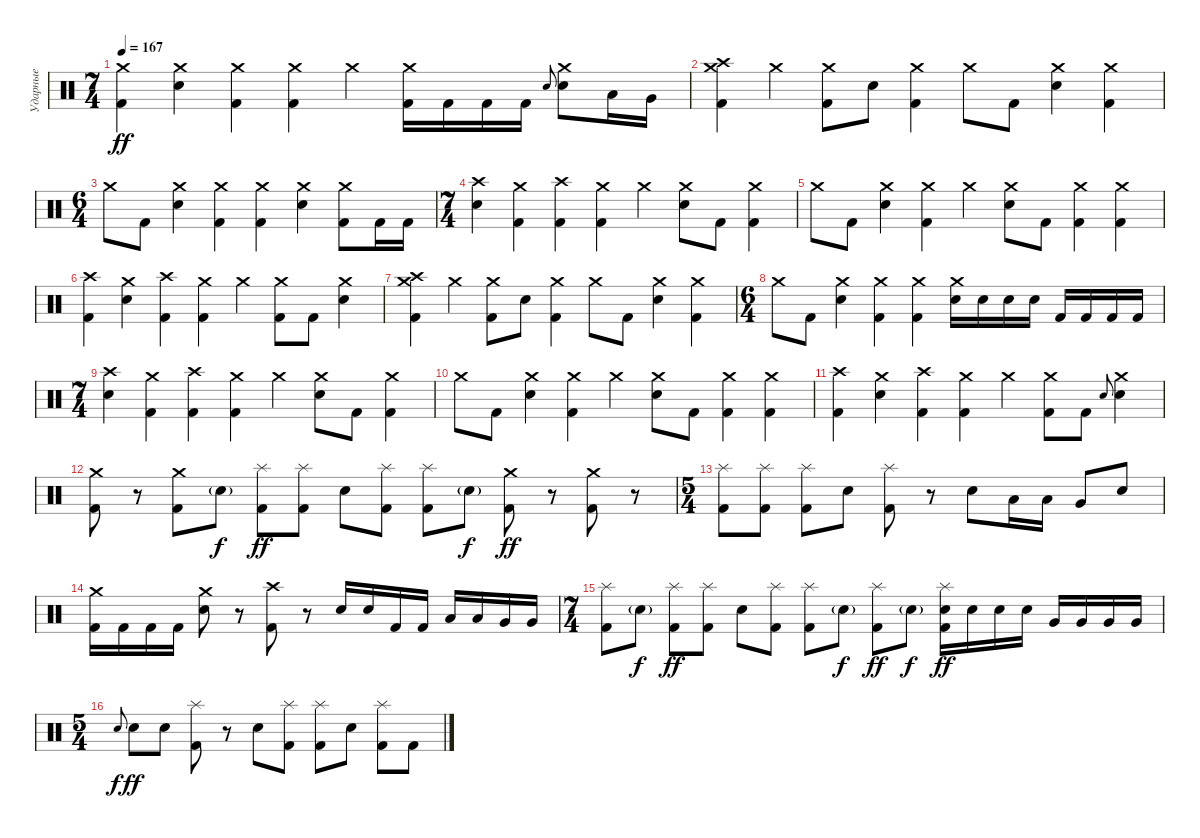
\track ("Ударные" "Ударные") {instrument percussion}
\staff {score}
\articulation defaults
\ts (7 4)
\tempo 167
\clef neutral
\ks c
("Crash medium (hit)" "Kick (hit) 2").4{dy ff} ("Crash medium (hit)" "Electric Snare (hit)").4 ("Crash medium (hit)" "Kick (hit) 2").4 ("Crash medium (hit)" "Kick (hit) 2").4 "Crash medium (hit)".4 ("Crash medium (hit)" "Kick (hit) 2").16 "Kick (hit) 2".16 "Kick (hit) 2".16 "Kick (hit) 2".16 "Electric Snare (hit)".8{gr onbeat} ("Crash medium (hit)" "Electric Snare (hit)").8 "Low Tom (hit)".16 "Very Low Tom (hit)".16 |
("Crash medium (hit)" "Crash high (hit)" "Kick (hit) 2").4 "Crash medium (hit)".4 ("Crash medium (hit)" "Kick (hit) 2").8 "Electric Snare (hit)".8 ("Crash medium (hit)" "Kick (hit) 2").4 "Crash medium (hit)".8 "Kick (hit) 2".8 ("Crash medium (hit)" "Electric Snare (hit)").4 ("Crash medium (hit)" "Kick (hit) 2").4 |
\ts (6 4)
"Crash medium (hit)".8 "Kick (hit) 2".8 ("Crash medium (hit)" "Electric Snare (hit)").4 ("Crash medium (hit)" "Kick (hit) 2").4 ("Crash medium (hit)" "Kick (hit) 2").4 ("Crash medium (hit)" "Electric Snare (hit)").4 ("Crash medium (hit)" "Kick (hit) 2").8 "Kick (hit) 2".16 "Kick (hit) 2".16 |
\ts (7 4)
("Crash high (hit)" "Electric Snare (hit)").4 ("Crash medium (hit)" "Kick (hit) 2").4 ("Crash high (hit)" "Kick (hit) 2").4 ("Crash medium (hit)" "Kick (hit) 2").4 "Crash medium (hit)".4 ("Crash medium (hit)" "Electric Snare (hit)").8 "Kick (hit) 2".8 ("Crash medium (hit)" "Kick (hit) 2").4 |
"Crash medium (hit)".8 "Kick (hit) 2".8 ("Crash medium (hit)" "Electric Snare (hit)").4 ("Crash medium (hit)" "Kick (hit) 2").4 "Crash medium (hit)".4 ("Crash medium (hit)" "Electric Snare (hit)").8 "Kick (hit) 2".8 ("Crash medium (hit)" "Kick (hit) 2").4 ("Crash medium (hit)" "Kick (hit) 2").4 |
("Crash high (hit)" "Kick (hit) 2").4 ("Crash medium (hit)" "Electric Snare (hit)").4 ("Crash high (hit)" "Kick (hit) 2").4 ("Crash medium (hit)" "Kick (hit) 2").4 "Crash medium (hit)".4 ("Crash medium (hit)" "Kick (hit) 2").8 "Kick (hit) 2".8 ("Crash medium (hit)" "Electric Snare (hit)").4 |
("Crash medium (hit)" "Crash high (hit)" "Kick (hit) 2").4 "Crash medium (hit)".4 ("Crash medium (hit)" "Kick (hit) 2").8 "Electric Snare (hit)".8 ("Crash medium (hit)" "Kick (hit) 2").4 "Crash medium (hit)".8 "Kick (hit) 2".8 ("Crash medium (hit)" "Electric Snare (hit)").4 ("Crash medium (hit)" "Kick (hit) 2").4 |
\ts (6 4)
"Crash medium (hit)".8 "Kick (hit) 2".8 ("Crash medium (hit)" "Electric Snare (hit)").4 ("Crash medium (hit)" "Kick (hit) 2").4 ("Crash medium (hit)" "Kick (hit) 2").4 ("Crash medium (hit)" "Electric Snare (hit)").16 "Electric Snare (hit)".16 "Electric Snare (hit)".16 "Electric Snare (hit)".16 "Kick (hit) 2".16 "Kick (hit) 2".16 "Kick (hit) 2".16 "Kick (hit) 2".16 |
\ts (7 4)
("Crash high (hit)" "Electric Snare (hit)").4 ("Crash medium (hit)" "Kick (hit) 2").4 ("Crash high (hit)" "Kick (hit) 2").4 ("Crash medium (hit)" "Kick (hit) 2").4 "Crash medium (hit)".4 ("Crash medium (hit)" "Electric Snare (hit)").8 "Kick (hit) 2".8 ("Crash medium (hit)" "Kick (hit) 2").4 |
"Crash medium (hit)".8 "Kick (hit) 2".8 ("Crash medium (hit)" "Electric Snare (hit)").4 ("Crash medium (hit)" "Kick (hit) 2").4 "Crash medium (hit)".4 ("Crash medium (hit)" "Electric Snare (hit)").8 "Kick (hit) 2".8 ("Crash medium (hit)" "Kick (hit) 2").4 ("Crash medium (hit)" "Kick (hit) 2").4 |
("Crash high (hit)" "Kick (hit) 2").4 ("Crash medium (hit)" "Electric Snare (hit)").4 ("Crash high (hit)" "Kick (hit) 2").4 ("Crash medium (hit)" "Kick (hit) 2").4 "Crash medium (hit)".4 ("Crash medium (hit)" "Kick (hit) 2").8 "Kick (hit) 2".8 "Electric Snare (hit)".8{gr onbeat} ("Crash medium (hit)" "Electric Snare (hit)").4 |
("Crash medium (hit)" "Kick (hit) 2").8 r.8 ("Crash medium (hit)" "Kick (hit) 2").8 "Electric Snare (hit)"{g}.8{dy f} ("Splash (hit)" "Kick (hit) 2").8{dy ff} ("Splash (hit)" "Kick (hit) 2").8 "Electric Snare (hit)".8 ("Splash (hit)" "Kick (hit) 2").8 ("Splash (hit)" "Kick (hit) 2").8 "Electric Snare (hit)"{g}.8{dy f} ("Crash medium (hit)" "Kick (hit) 2").8{dy ff} r.8 ("Crash medium (hit)" "Kick (hit) 2").8 r.8 |
\ts (5 4)
("Splash (hit)" "Kick (hit) 2").8 ("Splash (hit)" "Kick (hit) 2").8 ("Splash (hit)" "Kick (hit) 2").8 "Electric Snare (hit)".8 ("Splash (hit)" "Kick (hit) 2").8 r.8 "Electric Snare (hit)".8 "Low Tom (hit)".16 "Low Tom (hit)".16 "Very Low Tom (hit)".8 "Electric Snare (hit)".8 |
("Crash medium (hit)" "Kick (hit) 2").16 "Kick (hit) 2".16 "Kick (hit) 2".16 "Kick (hit) 2".16 ("Crash medium (hit)" "Electric Snare (hit)").8 r.8 ("Crash high (hit)" "Kick (hit) 2").8 r.8 "Electric Snare (hit)".16 "Electric Snare (hit)".16 "Kick (hit) 2".16 "Kick (hit) 2".16 "Low Tom (hit)".16 "Low Tom (hit)".16 "Very Low Tom (hit)".16 "Very Low Tom (hit)".16 |
\ts (7 4)
("Splash (hit)" "Kick (hit) 2").8 "Electric Snare (hit)"{g}.8{dy f} ("Splash (hit)" "Kick (hit) 2").8{dy ff} ("Splash (hit)" "Kick (hit) 2").8 "Electric Snare (hit)".8 ("Splash (hit)" "Kick (hit) 2").8 ("Splash (hit)" "Kick (hit) 2").8 "Electric Snare (hit)"{g}.8{dy f} ("Splash (hit)" "Kick (hit) 2").8{dy ff} "Electric Snare (hit)"{g}.8{dy f} ("Splash (hit)" "Electric Snare (hit)" "Kick (hit) 2").16{dy ff} "Electric Snare (hit)".16 "Electric Snare (hit)".16 "Electric Snare (hit)".16 "Very Low Tom (hit)".16 "Very Low Tom (hit)".16 "Very Low Tom (hit)".16 "Very Low Tom (hit)".16 |
\ts (5 4)
"Electric Snare (hit)".8{gr onbeat dy f} "Electric Snare (hit)".8{dy ff} "Electric Snare (hit)".8 ("Splash (hit)" "Kick (hit) 2").8 r.8 "Electric Snare (hit)".8 ("Splash (hit)" "Kick (hit) 2").8 ("Splash (hit)" "Kick (hit) 2").8 "Electric Snare (hit)".8 ("Splash (hit)" "Kick (hit) 2").8 "Kick (hit) 2".8
